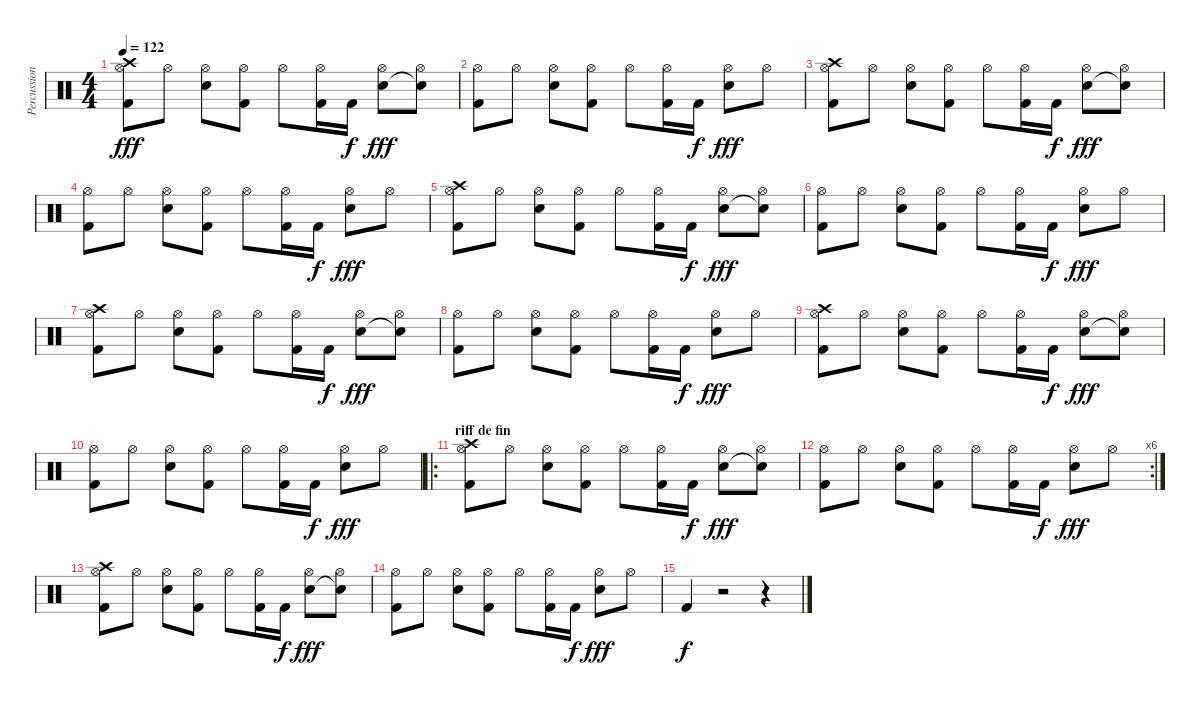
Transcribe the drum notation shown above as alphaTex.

\track ("Percussions" "Percussion") {instrument percussion}
\staff {score}
\articulation defaults
\ts (4 4)
\tempo 122
\clef neutral
\ks c
("Hi-Hat (open)" "Crash high (hit)" "Kick (hit) 2").8{dy fff} "Hi-Hat (open)".8 ("Hi-Hat (open)" "Electric Snare (hit)").8 ("Hi-Hat (open)" "Kick (hit) 2").8 "Hi-Hat (open)".8 ("Hi-Hat (open)" "Kick (hit) 2").16 "Kick (hit) 2".16{dy f} ("Hi-Hat (open)" "Electric Snare (hit)").8{dy fff} ("Hi-Hat (open)" "Snare (hit)"{t}).8 |
("Hi-Hat (open)" "Kick (hit) 2").8 "Hi-Hat (open)".8 ("Hi-Hat (open)" "Electric Snare (hit)").8 ("Hi-Hat (open)" "Kick (hit) 2").8 "Hi-Hat (open)".8 ("Hi-Hat (open)" "Kick (hit) 2").16 "Kick (hit) 2".16{dy f} ("Hi-Hat (open)" "Electric Snare (hit)").8{dy fff} "Hi-Hat (open)".8 |
("Hi-Hat (open)" "Crash high (hit)" "Kick (hit) 2").8 "Hi-Hat (open)".8 ("Hi-Hat (open)" "Electric Snare (hit)").8 ("Hi-Hat (open)" "Kick (hit) 2").8 "Hi-Hat (open)".8 ("Hi-Hat (open)" "Kick (hit) 2").16 "Kick (hit) 2".16{dy f} ("Hi-Hat (open)" "Electric Snare (hit)").8{dy fff} ("Hi-Hat (open)" "Snare (hit)"{t}).8 |
("Hi-Hat (open)" "Kick (hit) 2").8 "Hi-Hat (open)".8 ("Hi-Hat (open)" "Electric Snare (hit)").8 ("Hi-Hat (open)" "Kick (hit) 2").8 "Hi-Hat (open)".8 ("Hi-Hat (open)" "Kick (hit) 2").16 "Kick (hit) 2".16{dy f} ("Hi-Hat (open)" "Electric Snare (hit)").8{dy fff} "Hi-Hat (open)".8 |
("Hi-Hat (open)" "Crash high (hit)" "Kick (hit) 2").8 "Hi-Hat (open)".8 ("Hi-Hat (open)" "Electric Snare (hit)").8 ("Hi-Hat (open)" "Kick (hit) 2").8 "Hi-Hat (open)".8 ("Hi-Hat (open)" "Kick (hit) 2").16 "Kick (hit) 2".16{dy f} ("Hi-Hat (open)" "Electric Snare (hit)").8{dy fff} ("Hi-Hat (open)" "Snare (hit)"{t}).8 |
("Hi-Hat (open)" "Kick (hit) 2").8 "Hi-Hat (open)".8 ("Hi-Hat (open)" "Electric Snare (hit)").8 ("Hi-Hat (open)" "Kick (hit) 2").8 "Hi-Hat (open)".8 ("Hi-Hat (open)" "Kick (hit) 2").16 "Kick (hit) 2".16{dy f} ("Hi-Hat (open)" "Electric Snare (hit)").8{dy fff} "Hi-Hat (open)".8 |
("Hi-Hat (open)" "Crash high (hit)" "Kick (hit) 2").8 "Hi-Hat (open)".8 ("Hi-Hat (open)" "Electric Snare (hit)").8 ("Hi-Hat (open)" "Kick (hit) 2").8 "Hi-Hat (open)".8 ("Hi-Hat (open)" "Kick (hit) 2").16 "Kick (hit) 2".16{dy f} ("Hi-Hat (open)" "Electric Snare (hit)").8{dy fff} ("Hi-Hat (open)" "Snare (hit)"{t}).8 |
("Hi-Hat (open)" "Kick (hit) 2").8 "Hi-Hat (open)".8 ("Hi-Hat (open)" "Electric Snare (hit)").8 ("Hi-Hat (open)" "Kick (hit) 2").8 "Hi-Hat (open)".8 ("Hi-Hat (open)" "Kick (hit) 2").16 "Kick (hit) 2".16{dy f} ("Hi-Hat (open)" "Electric Snare (hit)").8{dy fff} "Hi-Hat (open)".8 |
("Hi-Hat (open)" "Crash high (hit)" "Kick (hit) 2").8 "Hi-Hat (open)".8 ("Hi-Hat (open)" "Electric Snare (hit)").8 ("Hi-Hat (open)" "Kick (hit) 2").8 "Hi-Hat (open)".8 ("Hi-Hat (open)" "Kick (hit) 2").16 "Kick (hit) 2".16{dy f} ("Hi-Hat (open)" "Electric Snare (hit)").8{dy fff} ("Hi-Hat (open)" "Snare (hit)"{t}).8 |
("Hi-Hat (open)" "Kick (hit) 2").8 "Hi-Hat (open)".8 ("Hi-Hat (open)" "Electric Snare (hit)").8 ("Hi-Hat (open)" "Kick (hit) 2").8 "Hi-Hat (open)".8 ("Hi-Hat (open)" "Kick (hit) 2").16 "Kick (hit) 2".16{dy f} ("Hi-Hat (open)" "Electric Snare (hit)").8{dy fff} "Hi-Hat (open)".8 |
\ro
\section ("" "riff de fin")
("Hi-Hat (open)" "Crash high (hit)" "Kick (hit) 2").8 "Hi-Hat (open)".8 ("Hi-Hat (open)" "Electric Snare (hit)").8 ("Hi-Hat (open)" "Kick (hit) 2").8 "Hi-Hat (open)".8 ("Hi-Hat (open)" "Kick (hit) 2").16 "Kick (hit) 2".16{dy f} ("Hi-Hat (open)" "Electric Snare (hit)").8{dy fff} ("Hi-Hat (open)" "Snare (hit)"{t}).8 |
\rc 6
("Hi-Hat (open)" "Kick (hit) 2").8 "Hi-Hat (open)".8 ("Hi-Hat (open)" "Electric Snare (hit)").8 ("Hi-Hat (open)" "Kick (hit) 2").8 "Hi-Hat (open)".8 ("Hi-Hat (open)" "Kick (hit) 2").16 "Kick (hit) 2".16{dy f} ("Hi-Hat (open)" "Electric Snare (hit)").8{dy fff} "Hi-Hat (open)".8 |
("Hi-Hat (open)" "Crash high (hit)" "Kick (hit) 2").8 "Hi-Hat (open)".8 ("Hi-Hat (open)" "Electric Snare (hit)").8 ("Hi-Hat (open)" "Kick (hit) 2").8 "Hi-Hat (open)".8 ("Hi-Hat (open)" "Kick (hit) 2").16 "Kick (hit) 2".16{dy f} ("Hi-Hat (open)" "Electric Snare (hit)").8{dy fff} ("Hi-Hat (open)" "Snare (hit)"{t}).8 |
("Hi-Hat (open)" "Kick (hit) 2").8 "Hi-Hat (open)".8 ("Hi-Hat (open)" "Electric Snare (hit)").8 ("Hi-Hat (open)" "Kick (hit) 2").8 "Hi-Hat (open)".8 ("Hi-Hat (open)" "Kick (hit) 2").16 "Kick (hit) 2".16{dy f} ("Hi-Hat (open)" "Electric Snare (hit)").8{dy fff} "Hi-Hat (open)".8 |
"Kick (hit) 2".4{dy f} r.2 r.4
